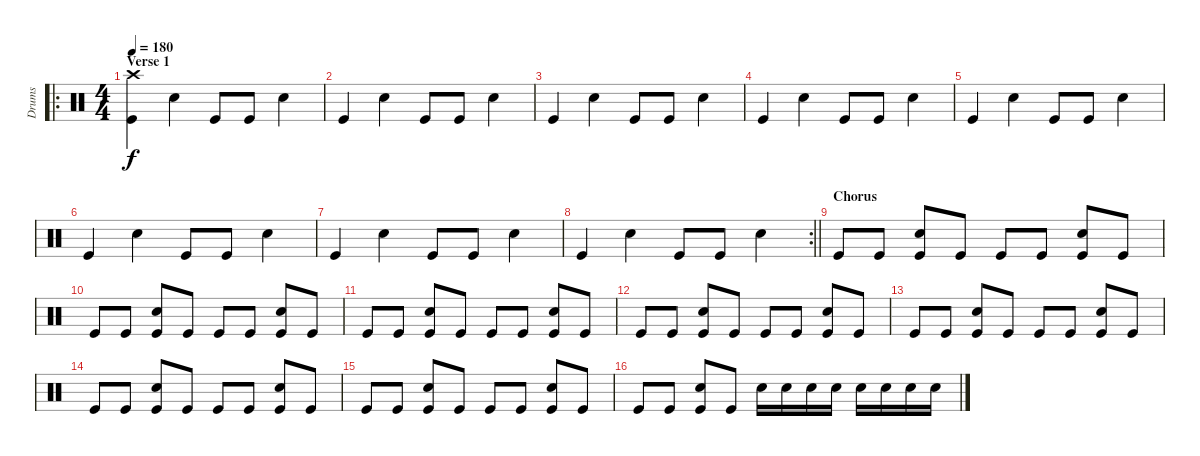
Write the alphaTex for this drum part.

\track ("Drums" "Drums") {instrument percussion}
\staff {score}
\articulation defaults
\ro
\ts (4 4)
\section ("" "Verse 1")
\tempo 180
\clef neutral
\ks c
("Crash high (hit)" "Kick (hit)").4{dy f} "Electric Snare (hit)".4 "Kick (hit)".8 "Kick (hit)".8 "Electric Snare (hit)".4 |
"Kick (hit)".4 "Electric Snare (hit)".4 "Kick (hit)".8 "Kick (hit)".8 "Electric Snare (hit)".4 |
"Kick (hit)".4 "Electric Snare (hit)".4 "Kick (hit)".8 "Kick (hit)".8 "Electric Snare (hit)".4 |
"Kick (hit)".4 "Electric Snare (hit)".4 "Kick (hit)".8 "Kick (hit)".8 "Electric Snare (hit)".4 |
"Kick (hit)".4 "Electric Snare (hit)".4 "Kick (hit)".8 "Kick (hit)".8 "Electric Snare (hit)".4 |
"Kick (hit)".4 "Electric Snare (hit)".4 "Kick (hit)".8 "Kick (hit)".8 "Electric Snare (hit)".4 |
"Kick (hit)".4 "Electric Snare (hit)".4 "Kick (hit)".8 "Kick (hit)".8 "Electric Snare (hit)".4 |
\rc 2
\barLineRight lightlight "Kick (hit)".4 "Electric Snare (hit)".4 "Kick (hit)".8 "Kick (hit)".8 "Electric Snare (hit)".4
|
\section ("" "Chorus")
"Kick (hit)".8 "Kick (hit)".8 ("Electric Snare (hit)" "Kick (hit)").8 "Kick (hit)".8 "Kick (hit)".8 "Kick (hit)".8 ("Electric Snare (hit)" "Kick (hit)").8 "Kick (hit)".8 |
"Kick (hit)".8 "Kick (hit)".8 ("Electric Snare (hit)" "Kick (hit)").8 "Kick (hit)".8 "Kick (hit)".8 "Kick (hit)".8 ("Electric Snare (hit)" "Kick (hit)").8 "Kick (hit)".8 |
"Kick (hit)".8 "Kick (hit)".8 ("Electric Snare (hit)" "Kick (hit)").8 "Kick (hit)".8 "Kick (hit)".8 "Kick (hit)".8 ("Electric Snare (hit)" "Kick (hit)").8 "Kick (hit)".8 |
"Kick (hit)".8 "Kick (hit)".8 ("Electric Snare (hit)" "Kick (hit)").8 "Kick (hit)".8 "Kick (hit)".8 "Kick (hit)".8 ("Electric Snare (hit)" "Kick (hit)").8 "Kick (hit)".8 |
"Kick (hit)".8 "Kick (hit)".8 ("Electric Snare (hit)" "Kick (hit)").8 "Kick (hit)".8 "Kick (hit)".8 "Kick (hit)".8 ("Electric Snare (hit)" "Kick (hit)").8 "Kick (hit)".8 |
"Kick (hit)".8 "Kick (hit)".8 ("Electric Snare (hit)" "Kick (hit)").8 "Kick (hit)".8 "Kick (hit)".8 "Kick (hit)".8 ("Electric Snare (hit)" "Kick (hit)").8 "Kick (hit)".8 |
"Kick (hit)".8 "Kick (hit)".8 ("Electric Snare (hit)" "Kick (hit)").8 "Kick (hit)".8 "Kick (hit)".8 "Kick (hit)".8 ("Electric Snare (hit)" "Kick (hit)").8 "Kick (hit)".8 |
"Kick (hit)".8 "Kick (hit)".8 ("Electric Snare (hit)" "Kick (hit)").8 "Kick (hit)".8 "Electric Snare (hit)".16 "Electric Snare (hit)".16 "Electric Snare (hit)".16 "Electric Snare (hit)".16 "Electric Snare (hit)".16 "Electric Snare (hit)".16 "Electric Snare (hit)".16 "Electric Snare (hit)".16
